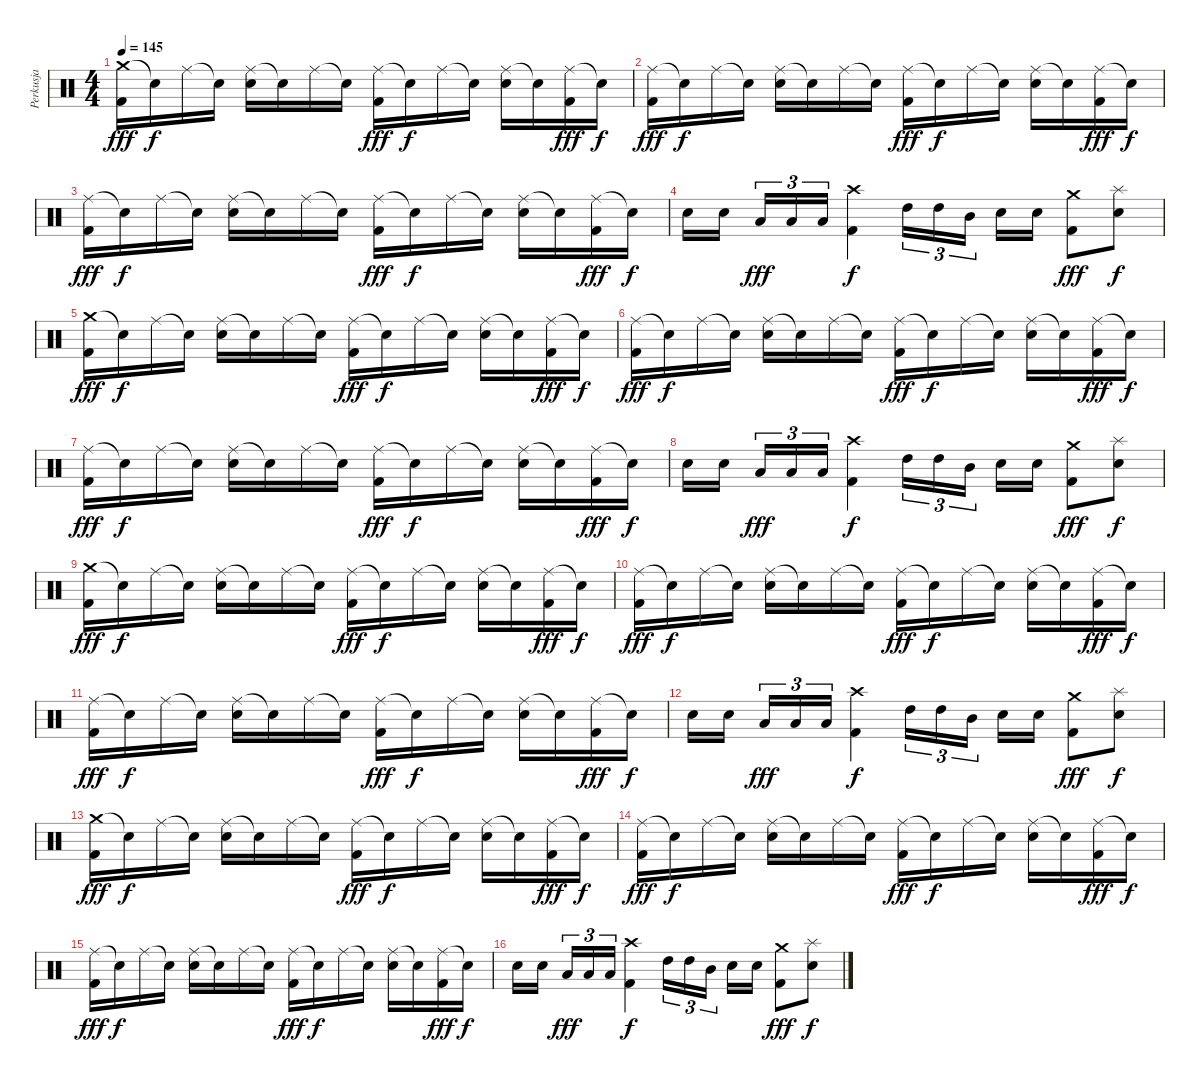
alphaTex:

\track ("Perkusja" "Perkusja") {instrument percussion}
\staff {score}
\articulation defaults
\ts (4 4)
\tempo 145
\clef neutral
\ks c
("Crash medium (hit)" "Kick (hit) 2").16{dy fff} "Snare (hit)"{t}.16{dy f} "Ride (middle)".16 "Snare (hit)"{t}.16 ("Ride (middle)" "Electric Snare (hit)").16 "Snare (hit)"{t}.16 "Ride (middle)".16 "Snare (hit)"{t}.16 ("Ride (middle)" "Kick (hit) 2").16{dy fff} "Snare (hit)"{t}.16{dy f} "Ride (middle)".16 "Snare (hit)"{t}.16 ("Ride (middle)" "Electric Snare (hit)").16 "Snare (hit)"{t}.16 ("Ride (middle)" "Kick (hit) 2").16{dy fff} "Snare (hit)"{t}.16{dy f} |
("Ride (middle)" "Kick (hit) 2").16{dy fff} "Snare (hit)"{t}.16{dy f} "Ride (middle)".16 "Snare (hit)"{t}.16 ("Ride (middle)" "Electric Snare (hit)").16 "Snare (hit)"{t}.16 "Ride (middle)".16 "Snare (hit)"{t}.16 ("Ride (middle)" "Kick (hit) 2").16{dy fff} "Snare (hit)"{t}.16{dy f} "Ride (middle)".16 "Snare (hit)"{t}.16 ("Ride (middle)" "Electric Snare (hit)").16 "Snare (hit)"{t}.16 ("Ride (middle)" "Kick (hit) 2").16{dy fff} "Snare (hit)"{t}.16{dy f} |
("Ride (middle)" "Kick (hit) 2").16{dy fff} "Snare (hit)"{t}.16{dy f} "Ride (middle)".16 "Snare (hit)"{t}.16 ("Ride (middle)" "Electric Snare (hit)").16 "Snare (hit)"{t}.16 "Ride (middle)".16 "Snare (hit)"{t}.16 ("Ride (middle)" "Kick (hit) 2").16{dy fff} "Snare (hit)"{t}.16{dy f} "Ride (middle)".16 "Snare (hit)"{t}.16 ("Ride (middle)" "Electric Snare (hit)").16 "Snare (hit)"{t}.16 ("Ride (middle)" "Kick (hit) 2").16{dy fff} "Snare (hit)"{t}.16{dy f} |
"Electric Snare (hit)".16 "Electric Snare (hit)".16 "Low Tom (hit)".16{tu (3 2) dy fff} "Low Tom (hit)".16{tu (3 2)} "Low Tom (hit)".16{tu (3 2)} ("Crash high (hit)" "Kick (hit) 2").4{dy f} "High Tom (hit)".16{tu (3 2)} "High Tom (hit)".16{tu (3 2)} "Mid Tom (hit)".16{tu (3 2)} "Electric Snare (hit)".16 "Electric Snare (hit)".16 ("Crash medium (hit)" "Kick (hit) 2").8{dy fff} ("Splash (hit)" "Electric Snare (hit)").8{dy f} |
("Crash medium (hit)" "Kick (hit) 2").16{dy fff} "Snare (hit)"{t}.16{dy f} "Ride (middle)".16 "Snare (hit)"{t}.16 ("Ride (middle)" "Electric Snare (hit)").16 "Snare (hit)"{t}.16 "Ride (middle)".16 "Snare (hit)"{t}.16 ("Ride (middle)" "Kick (hit) 2").16{dy fff} "Snare (hit)"{t}.16{dy f} "Ride (middle)".16 "Snare (hit)"{t}.16 ("Ride (middle)" "Electric Snare (hit)").16 "Snare (hit)"{t}.16 ("Ride (middle)" "Kick (hit) 2").16{dy fff} "Snare (hit)"{t}.16{dy f} |
("Ride (middle)" "Kick (hit) 2").16{dy fff} "Snare (hit)"{t}.16{dy f} "Ride (middle)".16 "Snare (hit)"{t}.16 ("Ride (middle)" "Electric Snare (hit)").16 "Snare (hit)"{t}.16 "Ride (middle)".16 "Snare (hit)"{t}.16 ("Ride (middle)" "Kick (hit) 2").16{dy fff} "Snare (hit)"{t}.16{dy f} "Ride (middle)".16 "Snare (hit)"{t}.16 ("Ride (middle)" "Electric Snare (hit)").16 "Snare (hit)"{t}.16 ("Ride (middle)" "Kick (hit) 2").16{dy fff} "Snare (hit)"{t}.16{dy f} |
("Ride (middle)" "Kick (hit) 2").16{dy fff} "Snare (hit)"{t}.16{dy f} "Ride (middle)".16 "Snare (hit)"{t}.16 ("Ride (middle)" "Electric Snare (hit)").16 "Snare (hit)"{t}.16 "Ride (middle)".16 "Snare (hit)"{t}.16 ("Ride (middle)" "Kick (hit) 2").16{dy fff} "Snare (hit)"{t}.16{dy f} "Ride (middle)".16 "Snare (hit)"{t}.16 ("Ride (middle)" "Electric Snare (hit)").16 "Snare (hit)"{t}.16 ("Ride (middle)" "Kick (hit) 2").16{dy fff} "Snare (hit)"{t}.16{dy f} |
"Electric Snare (hit)".16 "Electric Snare (hit)".16 "Low Tom (hit)".16{tu (3 2) dy fff} "Low Tom (hit)".16{tu (3 2)} "Low Tom (hit)".16{tu (3 2)} ("Crash high (hit)" "Kick (hit) 2").4{dy f} "High Tom (hit)".16{tu (3 2)} "High Tom (hit)".16{tu (3 2)} "Mid Tom (hit)".16{tu (3 2)} "Electric Snare (hit)".16 "Electric Snare (hit)".16 ("Crash medium (hit)" "Kick (hit) 2").8{dy fff} ("Splash (hit)" "Electric Snare (hit)").8{dy f} |
("Crash medium (hit)" "Kick (hit) 2").16{dy fff} "Snare (hit)"{t}.16{dy f} "Ride (middle)".16 "Snare (hit)"{t}.16 ("Ride (middle)" "Electric Snare (hit)").16 "Snare (hit)"{t}.16 "Ride (middle)".16 "Snare (hit)"{t}.16 ("Ride (middle)" "Kick (hit) 2").16{dy fff} "Snare (hit)"{t}.16{dy f} "Ride (middle)".16 "Snare (hit)"{t}.16 ("Ride (middle)" "Electric Snare (hit)").16 "Snare (hit)"{t}.16 ("Ride (middle)" "Kick (hit) 2").16{dy fff} "Snare (hit)"{t}.16{dy f} |
("Ride (middle)" "Kick (hit) 2").16{dy fff} "Snare (hit)"{t}.16{dy f} "Ride (middle)".16 "Snare (hit)"{t}.16 ("Ride (middle)" "Electric Snare (hit)").16 "Snare (hit)"{t}.16 "Ride (middle)".16 "Snare (hit)"{t}.16 ("Ride (middle)" "Kick (hit) 2").16{dy fff} "Snare (hit)"{t}.16{dy f} "Ride (middle)".16 "Snare (hit)"{t}.16 ("Ride (middle)" "Electric Snare (hit)").16 "Snare (hit)"{t}.16 ("Ride (middle)" "Kick (hit) 2").16{dy fff} "Snare (hit)"{t}.16{dy f} |
("Ride (middle)" "Kick (hit) 2").16{dy fff} "Snare (hit)"{t}.16{dy f} "Ride (middle)".16 "Snare (hit)"{t}.16 ("Ride (middle)" "Electric Snare (hit)").16 "Snare (hit)"{t}.16 "Ride (middle)".16 "Snare (hit)"{t}.16 ("Ride (middle)" "Kick (hit) 2").16{dy fff} "Snare (hit)"{t}.16{dy f} "Ride (middle)".16 "Snare (hit)"{t}.16 ("Ride (middle)" "Electric Snare (hit)").16 "Snare (hit)"{t}.16 ("Ride (middle)" "Kick (hit) 2").16{dy fff} "Snare (hit)"{t}.16{dy f} |
"Electric Snare (hit)".16 "Electric Snare (hit)".16 "Low Tom (hit)".16{tu (3 2) dy fff} "Low Tom (hit)".16{tu (3 2)} "Low Tom (hit)".16{tu (3 2)} ("Crash high (hit)" "Kick (hit) 2").4{dy f} "High Tom (hit)".16{tu (3 2)} "High Tom (hit)".16{tu (3 2)} "Mid Tom (hit)".16{tu (3 2)} "Electric Snare (hit)".16 "Electric Snare (hit)".16 ("Crash medium (hit)" "Kick (hit) 2").8{dy fff} ("Splash (hit)" "Electric Snare (hit)").8{dy f} |
("Crash medium (hit)" "Kick (hit) 2").16{dy fff} "Snare (hit)"{t}.16{dy f} "Ride (middle)".16 "Snare (hit)"{t}.16 ("Ride (middle)" "Electric Snare (hit)").16 "Snare (hit)"{t}.16 "Ride (middle)".16 "Snare (hit)"{t}.16 ("Ride (middle)" "Kick (hit) 2").16{dy fff} "Snare (hit)"{t}.16{dy f} "Ride (middle)".16 "Snare (hit)"{t}.16 ("Ride (middle)" "Electric Snare (hit)").16 "Snare (hit)"{t}.16 ("Ride (middle)" "Kick (hit) 2").16{dy fff} "Snare (hit)"{t}.16{dy f} |
("Ride (middle)" "Kick (hit) 2").16{dy fff} "Snare (hit)"{t}.16{dy f} "Ride (middle)".16 "Snare (hit)"{t}.16 ("Ride (middle)" "Electric Snare (hit)").16 "Snare (hit)"{t}.16 "Ride (middle)".16 "Snare (hit)"{t}.16 ("Ride (middle)" "Kick (hit) 2").16{dy fff} "Snare (hit)"{t}.16{dy f} "Ride (middle)".16 "Snare (hit)"{t}.16 ("Ride (middle)" "Electric Snare (hit)").16 "Snare (hit)"{t}.16 ("Ride (middle)" "Kick (hit) 2").16{dy fff} "Snare (hit)"{t}.16{dy f} |
("Ride (middle)" "Kick (hit) 2").16{dy fff} "Snare (hit)"{t}.16{dy f} "Ride (middle)".16 "Snare (hit)"{t}.16 ("Ride (middle)" "Electric Snare (hit)").16 "Snare (hit)"{t}.16 "Ride (middle)".16 "Snare (hit)"{t}.16 ("Ride (middle)" "Kick (hit) 2").16{dy fff} "Snare (hit)"{t}.16{dy f} "Ride (middle)".16 "Snare (hit)"{t}.16 ("Ride (middle)" "Electric Snare (hit)").16 "Snare (hit)"{t}.16 ("Ride (middle)" "Kick (hit) 2").16{dy fff} "Snare (hit)"{t}.16{dy f} |
"Electric Snare (hit)".16 "Electric Snare (hit)".16 "Low Tom (hit)".16{tu (3 2) dy fff} "Low Tom (hit)".16{tu (3 2)} "Low Tom (hit)".16{tu (3 2)} ("Crash high (hit)" "Kick (hit) 2").4{dy f} "High Tom (hit)".16{tu (3 2)} "High Tom (hit)".16{tu (3 2)} "Mid Tom (hit)".16{tu (3 2)} "Electric Snare (hit)".16 "Electric Snare (hit)".16 ("Crash medium (hit)" "Kick (hit) 2").8{dy fff} ("Splash (hit)" "Electric Snare (hit)").8{dy f}
